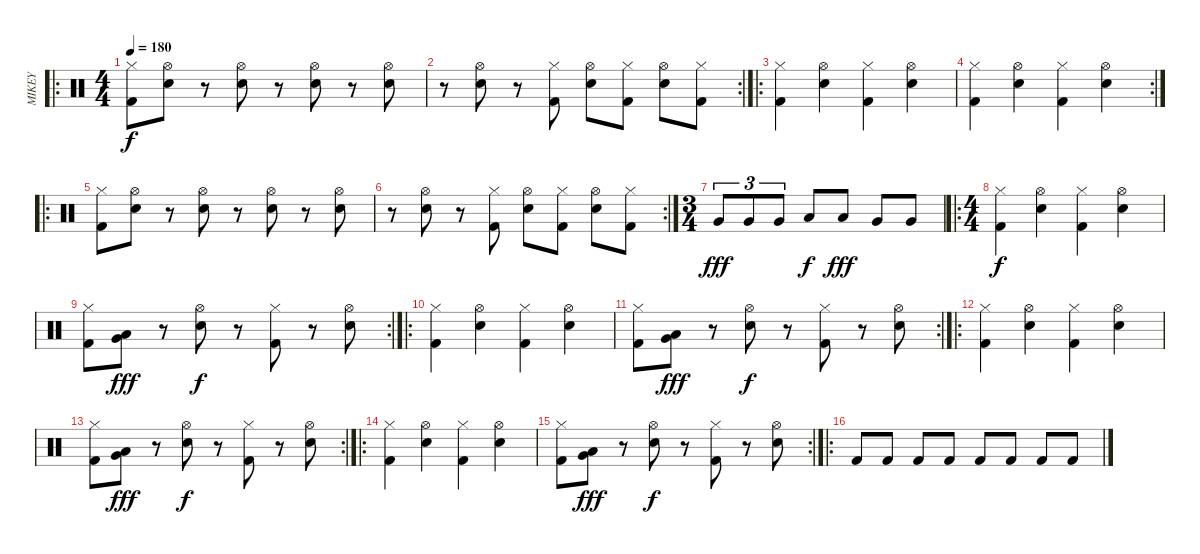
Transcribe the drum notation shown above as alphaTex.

\track ("MIKEY" "MIKEY") {instrument percussion}
\staff {score}
\articulation defaults
\ro
\ts (4 4)
\tempo 180
\clef neutral
\ks c
("Hi-Hat (closed)" "Kick (hit) 2").8{dy f} ("Hi-Hat (open)" "Snare (hit) 2").8 r.8 ("Hi-Hat (open)" "Snare (hit) 2").8 r.8 ("Hi-Hat (open)" "Snare (hit) 2").8 r.8 ("Hi-Hat (open)" "Snare (hit) 2").8 |
\rc 2
r.8 ("Hi-Hat (open)" "Snare (hit) 2").8 r.8 ("Hi-Hat (closed)" "Kick (hit) 2").8 ("Hi-Hat (open)" "Snare (hit) 2").8 ("Hi-Hat (closed)" "Kick (hit) 2").8 ("Hi-Hat (open)" "Snare (hit) 2").8 ("Hi-Hat (closed)" "Kick (hit) 2").8 |
\ro
("Hi-Hat (closed)" "Kick (hit) 2").4 ("Hi-Hat (open)" "Snare (hit) 2").4 ("Hi-Hat (closed)" "Kick (hit) 2").4 ("Hi-Hat (open)" "Snare (hit) 2").4 |
\rc 2
("Hi-Hat (closed)" "Kick (hit) 2").4 ("Hi-Hat (open)" "Snare (hit) 2").4 ("Hi-Hat (closed)" "Kick (hit) 2").4 ("Hi-Hat (open)" "Snare (hit) 2").4 |
\ro
("Hi-Hat (closed)" "Kick (hit) 2").8 ("Hi-Hat (open)" "Snare (hit) 2").8 r.8 ("Hi-Hat (open)" "Snare (hit) 2").8 r.8 ("Hi-Hat (open)" "Snare (hit) 2").8 r.8 ("Hi-Hat (open)" "Snare (hit) 2").8 |
\rc 2
r.8 ("Hi-Hat (open)" "Snare (hit) 2").8 r.8 ("Hi-Hat (closed)" "Kick (hit) 2").8 ("Hi-Hat (open)" "Snare (hit) 2").8 ("Hi-Hat (closed)" "Kick (hit) 2").8 ("Hi-Hat (open)" "Snare (hit) 2").8 ("Hi-Hat (closed)" "Kick (hit) 2").8 |
\ts (3 4)
"Very Low Tom (hit)".8{tu (3 2) dy fff} "Very Low Tom (hit)".8{tu (3 2)} "Very Low Tom (hit)".8{tu (3 2)} "Low Tom (hit)".8{dy f} "Low Floor Tom (hit)".8{dy fff} "Very Low Tom (hit)".8 "Very Low Tom (hit)".8 |
\ro
\ts (4 4)
("Hi-Hat (closed)" "Kick (hit) 2").4{dy f} ("Hi-Hat (open)" "Snare (hit) 2").4 ("Hi-Hat (closed)" "Kick (hit) 2").4 ("Hi-Hat (open)" "Snare (hit) 2").4 |
\rc 2
("Hi-Hat (closed)" "Kick (hit) 2").8 ("Low Tom (hit)" "Very Low Tom (hit)").8{dy fff} r.8 ("Hi-Hat (open)" "Snare (hit) 2").8{dy f} r.8 ("Hi-Hat (closed)" "Kick (hit) 2").8 r.8 ("Hi-Hat (open)" "Snare (hit) 2").8 |
\ro
("Hi-Hat (closed)" "Kick (hit) 2").4 ("Hi-Hat (open)" "Snare (hit) 2").4 ("Hi-Hat (closed)" "Kick (hit) 2").4 ("Hi-Hat (open)" "Snare (hit) 2").4 |
\rc 2
("Hi-Hat (closed)" "Kick (hit) 2").8 ("Low Tom (hit)" "Very Low Tom (hit)").8{dy fff} r.8 ("Hi-Hat (open)" "Snare (hit) 2").8{dy f} r.8 ("Hi-Hat (closed)" "Kick (hit) 2").8 r.8 ("Hi-Hat (open)" "Snare (hit) 2").8 |
\ro
("Hi-Hat (closed)" "Kick (hit) 2").4 ("Hi-Hat (open)" "Snare (hit) 2").4 ("Hi-Hat (closed)" "Kick (hit) 2").4 ("Hi-Hat (open)" "Snare (hit) 2").4 |
\rc 2
("Hi-Hat (closed)" "Kick (hit) 2").8 ("Low Tom (hit)" "Very Low Tom (hit)").8{dy fff} r.8 ("Hi-Hat (open)" "Snare (hit) 2").8{dy f} r.8 ("Hi-Hat (closed)" "Kick (hit) 2").8 r.8 ("Hi-Hat (open)" "Snare (hit) 2").8 |
\ro
("Hi-Hat (closed)" "Kick (hit) 2").4 ("Hi-Hat (open)" "Snare (hit) 2").4 ("Hi-Hat (closed)" "Kick (hit) 2").4 ("Hi-Hat (open)" "Snare (hit) 2").4 |
\rc 2
("Hi-Hat (closed)" "Kick (hit) 2").8 ("Low Tom (hit)" "Very Low Tom (hit)").8{dy fff} r.8 ("Hi-Hat (open)" "Snare (hit) 2").8{dy f} r.8 ("Hi-Hat (closed)" "Kick (hit) 2").8 r.8 ("Hi-Hat (open)" "Snare (hit) 2").8 |
\ro "Kick (hit) 2".8 "Kick (hit) 2".8 "Kick (hit) 2".8 "Kick (hit) 2".8 "Kick (hit) 2".8 "Kick (hit) 2".8 "Kick (hit) 2".8 "Kick (hit) 2".8
